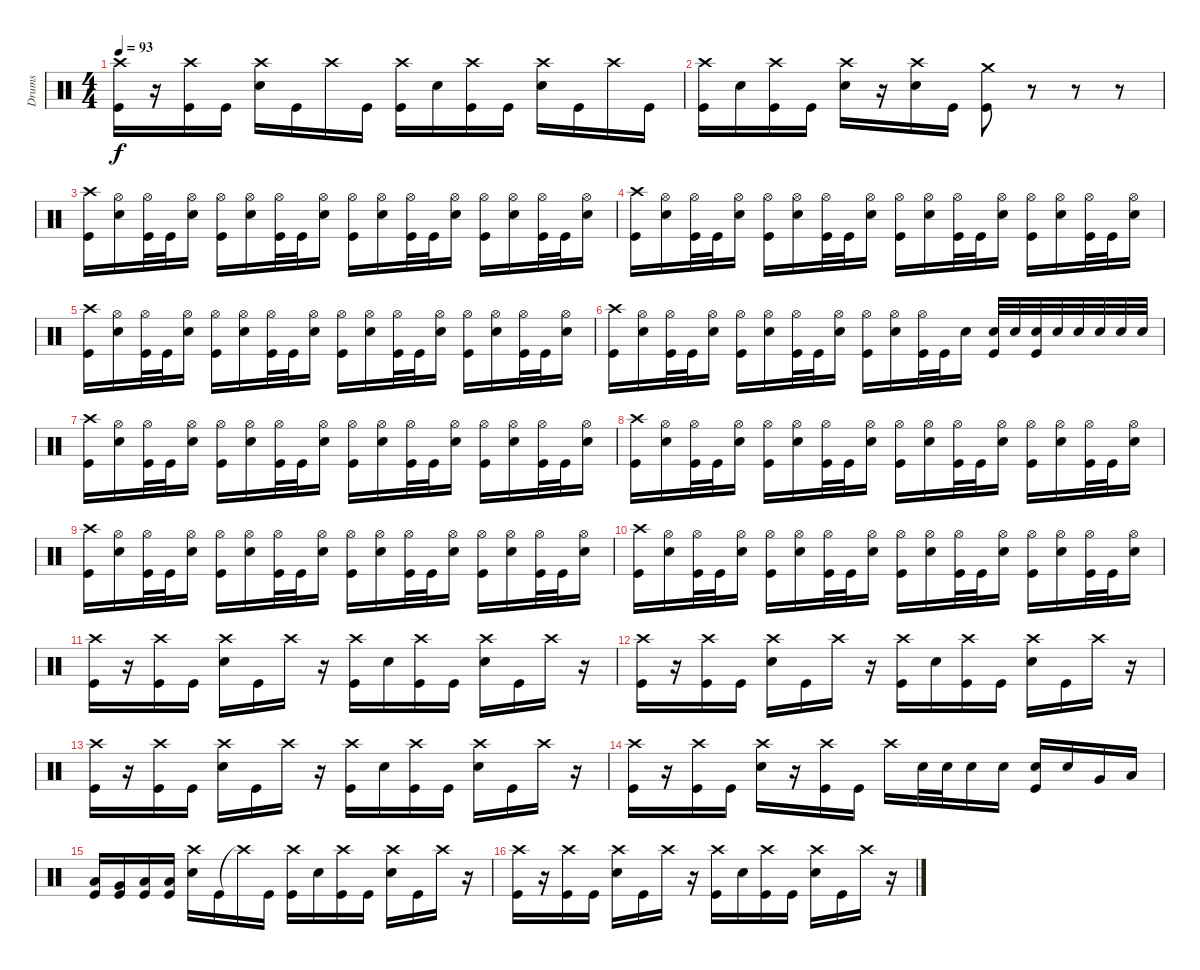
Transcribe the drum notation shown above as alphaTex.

\track ("Drums" "Drums") {instrument percussion}
\staff {score}
\articulation defaults
\ts (4 4)
\tempo 93
\clef neutral
\ks c
("Crash high (hit)" "Kick (hit)").16{dy f} r.16 ("Crash high (hit)" "Kick (hit)").16 "Kick (hit)".16 ("Crash high (hit)" "Electric Snare (hit)").16 "Kick (hit)".16 "Crash high (hit)".16 "Kick (hit)".16 ("Crash high (hit)" "Kick (hit)").16 "Electric Snare (hit)".16 ("Crash high (hit)" "Kick (hit)").16 "Kick (hit)".16 ("Crash high (hit)" "Electric Snare (hit)").16 "Kick (hit)".16 "Crash high (hit)".16 "Kick (hit)".16 |
("Crash high (hit)" "Kick (hit)").16 "Electric Snare (hit)".16 ("Crash high (hit)" "Kick (hit)").16 "Kick (hit)".16 ("Crash high (hit)" "Electric Snare (hit)").16 r.16 ("Crash high (hit)" "Electric Snare (hit)").16 "Kick (hit)".16 ("Crash medium (hit)" "Kick (hit)").8 r.8 r.8 r.8 |
("Crash high (hit)" "Kick (hit)").16 ("Hi-Hat (open)" "Electric Snare (hit)").16 ("Hi-Hat (open)" "Kick (hit)").32 "Kick (hit)".32 ("Hi-Hat (open)" "Electric Snare (hit)").16 ("Hi-Hat (open)" "Kick (hit)").16 ("Hi-Hat (open)" "Electric Snare (hit)").16 ("Hi-Hat (open)" "Kick (hit)").32 "Kick (hit)".32 ("Hi-Hat (open)" "Electric Snare (hit)").16 ("Hi-Hat (open)" "Kick (hit)").16 ("Hi-Hat (open)" "Electric Snare (hit)").16 ("Hi-Hat (open)" "Kick (hit)").32 "Kick (hit)".32 ("Hi-Hat (open)" "Electric Snare (hit)").16 ("Hi-Hat (open)" "Kick (hit)").16 ("Hi-Hat (open)" "Electric Snare (hit)").16 ("Hi-Hat (open)" "Kick (hit)").32 "Kick (hit)".32 ("Hi-Hat (open)" "Electric Snare (hit)").16 |
("Crash high (hit)" "Kick (hit)").16 ("Hi-Hat (open)" "Electric Snare (hit)").16 ("Hi-Hat (open)" "Kick (hit)").32 "Kick (hit)".32 ("Hi-Hat (open)" "Electric Snare (hit)").16 ("Hi-Hat (open)" "Kick (hit)").16 ("Hi-Hat (open)" "Electric Snare (hit)").16 ("Hi-Hat (open)" "Kick (hit)").32 "Kick (hit)".32 ("Hi-Hat (open)" "Electric Snare (hit)").16 ("Hi-Hat (open)" "Kick (hit)").16 ("Hi-Hat (open)" "Electric Snare (hit)").16 ("Hi-Hat (open)" "Kick (hit)").32 "Kick (hit)".32 ("Hi-Hat (open)" "Electric Snare (hit)").16 ("Hi-Hat (open)" "Kick (hit)").16 ("Hi-Hat (open)" "Electric Snare (hit)").16 ("Hi-Hat (open)" "Kick (hit)").32 "Kick (hit)".32 ("Hi-Hat (open)" "Electric Snare (hit)").16 |
("Crash high (hit)" "Kick (hit)").16 ("Hi-Hat (open)" "Electric Snare (hit)").16 ("Hi-Hat (open)" "Kick (hit)").32 "Kick (hit)".32 ("Hi-Hat (open)" "Electric Snare (hit)").16 ("Hi-Hat (open)" "Kick (hit)").16 ("Hi-Hat (open)" "Electric Snare (hit)").16 ("Hi-Hat (open)" "Kick (hit)").32 "Kick (hit)".32 ("Hi-Hat (open)" "Electric Snare (hit)").16 ("Hi-Hat (open)" "Kick (hit)").16 ("Hi-Hat (open)" "Electric Snare (hit)").16 ("Hi-Hat (open)" "Kick (hit)").32 "Kick (hit)".32 ("Hi-Hat (open)" "Electric Snare (hit)").16 ("Hi-Hat (open)" "Kick (hit)").16 ("Hi-Hat (open)" "Electric Snare (hit)").16 ("Hi-Hat (open)" "Kick (hit)").32 "Kick (hit)".32 ("Hi-Hat (open)" "Electric Snare (hit)").16 |
("Crash high (hit)" "Kick (hit)").16 ("Hi-Hat (open)" "Electric Snare (hit)").16 ("Hi-Hat (open)" "Kick (hit)").32 "Kick (hit)".32 ("Hi-Hat (open)" "Electric Snare (hit)").16 ("Hi-Hat (open)" "Kick (hit)").16 ("Hi-Hat (open)" "Electric Snare (hit)").16 ("Hi-Hat (open)" "Kick (hit)").32 "Kick (hit)".32 ("Hi-Hat (open)" "Electric Snare (hit)").16 ("Hi-Hat (open)" "Kick (hit)").16 ("Hi-Hat (open)" "Electric Snare (hit)").16 ("Hi-Hat (open)" "Kick (hit)").32 "Kick (hit)".32 "Electric Snare (hit)".16 ("Electric Snare (hit)" "Kick (hit)").32 "Electric Snare (hit)".32 ("Electric Snare (hit)" "Kick (hit)").32 "Electric Snare (hit)".32 "Electric Snare (hit)".32 "Electric Snare (hit)".32 "Electric Snare (hit)".32 "Electric Snare (hit)".32 |
("Crash high (hit)" "Kick (hit)").16 ("Hi-Hat (open)" "Electric Snare (hit)").16 ("Hi-Hat (open)" "Kick (hit)").32 "Kick (hit)".32 ("Hi-Hat (open)" "Electric Snare (hit)").16 ("Hi-Hat (open)" "Kick (hit)").16 ("Hi-Hat (open)" "Electric Snare (hit)").16 ("Hi-Hat (open)" "Kick (hit)").32 "Kick (hit)".32 ("Hi-Hat (open)" "Electric Snare (hit)").16 ("Hi-Hat (open)" "Kick (hit)").16 ("Hi-Hat (open)" "Electric Snare (hit)").16 ("Hi-Hat (open)" "Kick (hit)").32 "Kick (hit)".32 ("Hi-Hat (open)" "Electric Snare (hit)").16 ("Hi-Hat (open)" "Kick (hit)").16 ("Hi-Hat (open)" "Electric Snare (hit)").16 ("Hi-Hat (open)" "Kick (hit)").32 "Kick (hit)".32 ("Hi-Hat (open)" "Electric Snare (hit)").16 |
("Crash high (hit)" "Kick (hit)").16 ("Hi-Hat (open)" "Electric Snare (hit)").16 ("Hi-Hat (open)" "Kick (hit)").32 "Kick (hit)".32 ("Hi-Hat (open)" "Electric Snare (hit)").16 ("Hi-Hat (open)" "Kick (hit)").16 ("Hi-Hat (open)" "Electric Snare (hit)").16 ("Hi-Hat (open)" "Kick (hit)").32 "Kick (hit)".32 ("Hi-Hat (open)" "Electric Snare (hit)").16 ("Hi-Hat (open)" "Kick (hit)").16 ("Hi-Hat (open)" "Electric Snare (hit)").16 ("Hi-Hat (open)" "Kick (hit)").32 "Kick (hit)".32 ("Hi-Hat (open)" "Electric Snare (hit)").16 ("Hi-Hat (open)" "Kick (hit)").16 ("Hi-Hat (open)" "Electric Snare (hit)").16 ("Hi-Hat (open)" "Kick (hit)").32 "Kick (hit)".32 ("Hi-Hat (open)" "Electric Snare (hit)").16 |
("Crash high (hit)" "Kick (hit)").16 ("Hi-Hat (open)" "Electric Snare (hit)").16 ("Hi-Hat (open)" "Kick (hit)").32 "Kick (hit)".32 ("Hi-Hat (open)" "Electric Snare (hit)").16 ("Hi-Hat (open)" "Kick (hit)").16 ("Hi-Hat (open)" "Electric Snare (hit)").16 ("Hi-Hat (open)" "Kick (hit)").32 "Kick (hit)".32 ("Hi-Hat (open)" "Electric Snare (hit)").16 ("Hi-Hat (open)" "Kick (hit)").16 ("Hi-Hat (open)" "Electric Snare (hit)").16 ("Hi-Hat (open)" "Kick (hit)").32 "Kick (hit)".32 ("Hi-Hat (open)" "Electric Snare (hit)").16 ("Hi-Hat (open)" "Kick (hit)").16 ("Hi-Hat (open)" "Electric Snare (hit)").16 ("Hi-Hat (open)" "Kick (hit)").32 "Kick (hit)".32 ("Hi-Hat (open)" "Electric Snare (hit)").16 |
("Crash high (hit)" "Kick (hit)").16 ("Hi-Hat (open)" "Electric Snare (hit)").16 ("Hi-Hat (open)" "Kick (hit)").32 "Kick (hit)".32 ("Hi-Hat (open)" "Electric Snare (hit)").16 ("Hi-Hat (open)" "Kick (hit)").16 ("Hi-Hat (open)" "Electric Snare (hit)").16 ("Hi-Hat (open)" "Kick (hit)").32 "Kick (hit)".32 ("Hi-Hat (open)" "Electric Snare (hit)").16 ("Hi-Hat (open)" "Kick (hit)").16 ("Hi-Hat (open)" "Electric Snare (hit)").16 ("Hi-Hat (open)" "Kick (hit)").32 "Kick (hit)".32 ("Hi-Hat (open)" "Electric Snare (hit)").16 ("Hi-Hat (open)" "Kick (hit)").16 ("Hi-Hat (open)" "Electric Snare (hit)").16 ("Hi-Hat (open)" "Kick (hit)").32 "Kick (hit)".32 ("Hi-Hat (open)" "Electric Snare (hit)").16 |
("Crash high (hit)" "Kick (hit)").16 r.16 ("Crash high (hit)" "Kick (hit)").16 "Kick (hit)".16 ("Crash high (hit)" "Electric Snare (hit)").16 "Kick (hit)".16 "Crash high (hit)".16 r.16 ("Crash high (hit)" "Kick (hit)").16 "Electric Snare (hit)".16 ("Crash high (hit)" "Kick (hit)").16 "Kick (hit)".16 ("Crash high (hit)" "Electric Snare (hit)").16 "Kick (hit)".16 "Crash high (hit)".16 r.16 |
("Crash high (hit)" "Kick (hit)").16 r.16 ("Crash high (hit)" "Kick (hit)").16 "Kick (hit)".16 ("Crash high (hit)" "Electric Snare (hit)").16 "Kick (hit)".16 "Crash high (hit)".16 r.16 ("Crash high (hit)" "Kick (hit)").16 "Electric Snare (hit)".16 ("Crash high (hit)" "Kick (hit)").16 "Kick (hit)".16 ("Crash high (hit)" "Electric Snare (hit)").16 "Kick (hit)".16 "Crash high (hit)".16 r.16 |
("Crash high (hit)" "Kick (hit)").16 r.16 ("Crash high (hit)" "Kick (hit)").16 "Kick (hit)".16 ("Crash high (hit)" "Electric Snare (hit)").16 "Kick (hit)".16 "Crash high (hit)".16 r.16 ("Crash high (hit)" "Kick (hit)").16 "Electric Snare (hit)".16 ("Crash high (hit)" "Kick (hit)").16 "Kick (hit)".16 ("Crash high (hit)" "Electric Snare (hit)").16 "Kick (hit)".16 "Crash high (hit)".16 r.16 |
("Crash high (hit)" "Kick (hit)").16 r.16 ("Crash high (hit)" "Kick (hit)").16 "Kick (hit)".16 ("Crash high (hit)" "Electric Snare (hit)").16 r.16 ("Crash high (hit)" "Kick (hit)").16 "Kick (hit)".16 "Crash high (hit)".16 "Electric Snare (hit)".32 "Electric Snare (hit)".32 "Electric Snare (hit)".16 "Electric Snare (hit)".16 ("Electric Snare (hit)" "Kick (hit)").16 "Electric Snare (hit)".16 "Very Low Tom (hit)".16 "Low Floor Tom (hit)".16 |
("Low Floor Tom (hit)" "Kick (hit)").16 ("Very Low Tom (hit)" "Kick (hit)").16 ("Low Floor Tom (hit)" "Kick (hit)").16 ("Low Floor Tom (hit)" "Kick (hit)").16 ("Crash high (hit)" "Electric Snare (hit)").16 "Kick (hit)".16 "Crash high (hit)"{t}.16 "Kick (hit)".16 ("Crash high (hit)" "Kick (hit)").16 "Electric Snare (hit)".16 ("Crash high (hit)" "Kick (hit)").16 "Kick (hit)".16 ("Crash high (hit)" "Electric Snare (hit)").16 "Kick (hit)".16 "Crash high (hit)".16 r.16 |
("Crash high (hit)" "Kick (hit)").16 r.16 ("Crash high (hit)" "Kick (hit)").16 "Kick (hit)".16 ("Crash high (hit)" "Electric Snare (hit)").16 "Kick (hit)".16 "Crash high (hit)".16 r.16 ("Crash high (hit)" "Kick (hit)").16 "Electric Snare (hit)".16 ("Crash high (hit)" "Kick (hit)").16 "Kick (hit)".16 ("Crash high (hit)" "Electric Snare (hit)").16 "Kick (hit)".16 "Crash high (hit)".16 r.16
